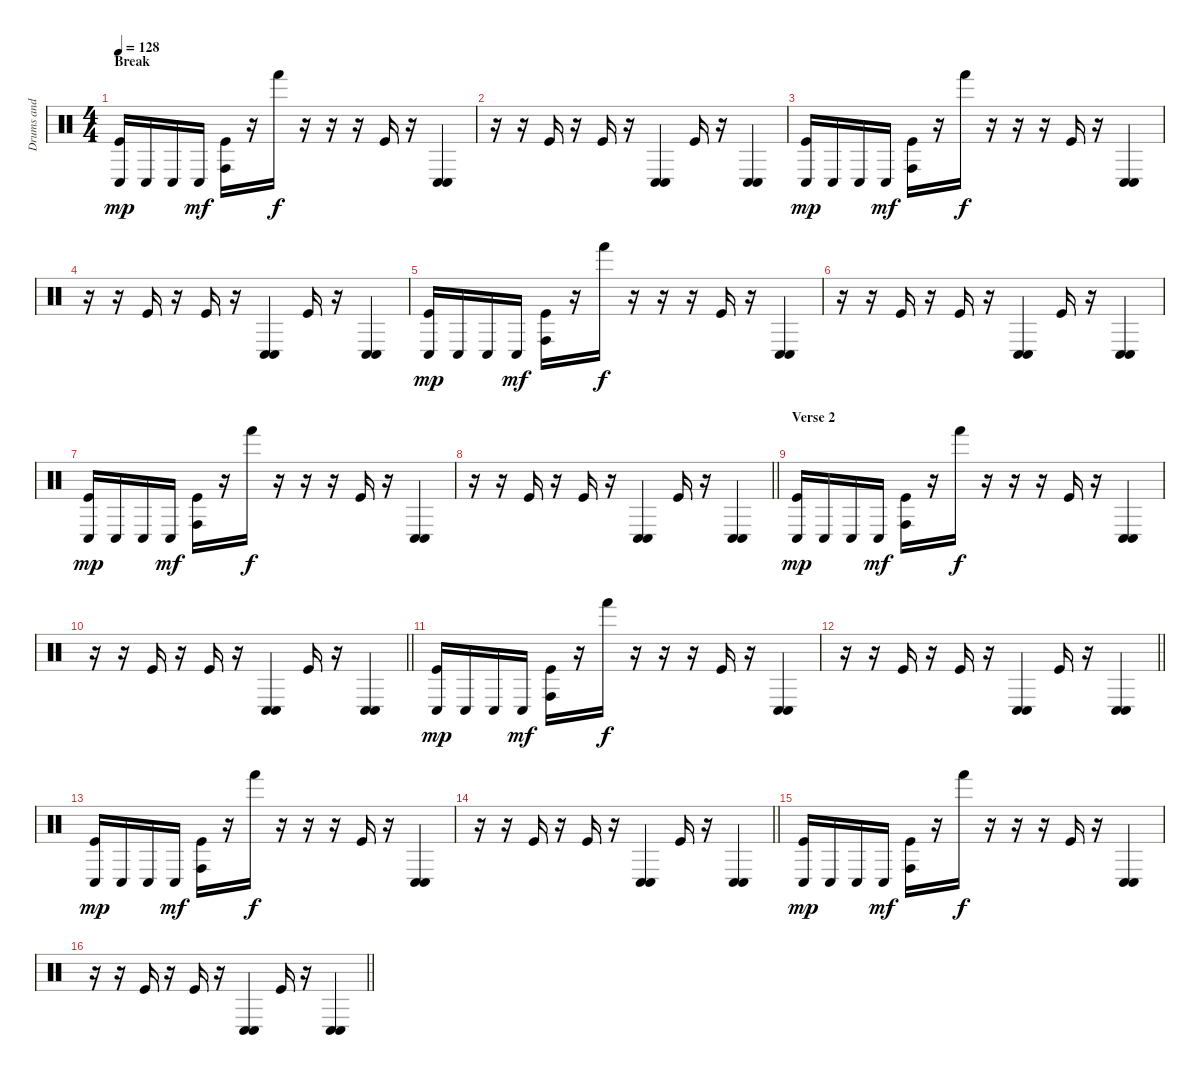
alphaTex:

\track ("Drums and Percussions" "Drums and ") {instrument percussion}
\staff {score}
\articulation defaults
\ts (4 4)
\section ("" "Break")
\tempo 128
\clef neutral
\ks c
("Conga low (hit)" "Kick (hit)").16{dy mp} "Conga low (hit)".16 "Conga low (hit)".16 "Conga low (hit)".16{dy mf} ("Conga high (hit)" "Kick (hit)").16 r.16 "Hand (hit)".16{dy f} r.16 r.16 r.16 "Kick (hit)".16 r.16 ("Conga low (hit)" "Conga low (hit)").4{bd 120} |
r.16 r.16 "Kick (hit)".16 r.16 "Kick (hit)".16 r.16 ("Conga low (hit)" "Conga low (hit)").4{bd 120} "Kick (hit)".16 r.16 ("Conga low (hit)" "Conga low (hit)").4{bd 120} |
("Conga low (hit)" "Kick (hit)").16{dy mp} "Conga low (hit)".16 "Conga low (hit)".16 "Conga low (hit)".16{dy mf} ("Conga high (hit)" "Kick (hit)").16 r.16 "Hand (hit)".16{dy f} r.16 r.16 r.16 "Kick (hit)".16 r.16 ("Conga low (hit)" "Conga low (hit)").4{bd 120} |
r.16 r.16 "Kick (hit)".16 r.16 "Kick (hit)".16 r.16 ("Conga low (hit)" "Conga low (hit)").4{bd 120} "Kick (hit)".16 r.16 ("Conga low (hit)" "Conga low (hit)").4{bd 120} |
("Conga low (hit)" "Kick (hit)").16{dy mp} "Conga low (hit)".16 "Conga low (hit)".16 "Conga low (hit)".16{dy mf} ("Conga high (hit)" "Kick (hit)").16 r.16 "Hand (hit)".16{dy f} r.16 r.16 r.16 "Kick (hit)".16 r.16 ("Conga low (hit)" "Conga low (hit)").4{bd 120} |
r.16 r.16 "Kick (hit)".16 r.16 "Kick (hit)".16 r.16 ("Conga low (hit)" "Conga low (hit)").4{bd 120} "Kick (hit)".16 r.16 ("Conga low (hit)" "Conga low (hit)").4{bd 120} |
("Conga low (hit)" "Kick (hit)").16{dy mp} "Conga low (hit)".16 "Conga low (hit)".16 "Conga low (hit)".16{dy mf} ("Conga high (hit)" "Kick (hit)").16 r.16 "Hand (hit)".16{dy f} r.16 r.16 r.16 "Kick (hit)".16 r.16 ("Conga low (hit)" "Conga low (hit)").4{bd 120} |
\barLineRight lightlight
r.16 r.16 "Kick (hit)".16 r.16 "Kick (hit)".16 r.16 ("Conga low (hit)" "Conga low (hit)").4{bd 120} "Kick (hit)".16 r.16 ("Conga low (hit)" "Conga low (hit)").4{bd 120} |
\section ("" "Verse 2")
("Conga low (hit)" "Kick (hit)").16{dy mp} "Conga low (hit)".16 "Conga low (hit)".16 "Conga low (hit)".16{dy mf} ("Conga high (hit)" "Kick (hit)").16 r.16 "Hand (hit)".16{dy f} r.16 r.16 r.16 "Kick (hit)".16 r.16 ("Conga low (hit)" "Conga low (hit)").4{bd 120} |
\barLineRight lightlight
r.16 r.16 "Kick (hit)".16 r.16 "Kick (hit)".16 r.16 ("Conga low (hit)" "Conga low (hit)").4{bd 120} "Kick (hit)".16 r.16 ("Conga low (hit)" "Conga low (hit)").4{bd 120} |
("Conga low (hit)" "Kick (hit)").16{dy mp} "Conga low (hit)".16 "Conga low (hit)".16 "Conga low (hit)".16{dy mf} ("Conga high (hit)" "Kick (hit)").16 r.16 "Hand (hit)".16{dy f} r.16 r.16 r.16 "Kick (hit)".16 r.16 ("Conga low (hit)" "Conga low (hit)").4{bd 120} |
\barLineRight lightlight
r.16 r.16 "Kick (hit)".16 r.16 "Kick (hit)".16 r.16 ("Conga low (hit)" "Conga low (hit)").4{bd 120} "Kick (hit)".16 r.16 ("Conga low (hit)" "Conga low (hit)").4{bd 120} |
("Conga low (hit)" "Kick (hit)").16{dy mp} "Conga low (hit)".16 "Conga low (hit)".16 "Conga low (hit)".16{dy mf} ("Conga high (hit)" "Kick (hit)").16 r.16 "Hand (hit)".16{dy f} r.16 r.16 r.16 "Kick (hit)".16 r.16 ("Conga low (hit)" "Conga low (hit)").4{bd 120} |
\barLineRight lightlight
r.16 r.16 "Kick (hit)".16 r.16 "Kick (hit)".16 r.16 ("Conga low (hit)" "Conga low (hit)").4{bd 120} "Kick (hit)".16 r.16 ("Conga low (hit)" "Conga low (hit)").4{bd 120} |
("Conga low (hit)" "Kick (hit)").16{dy mp} "Conga low (hit)".16 "Conga low (hit)".16 "Conga low (hit)".16{dy mf} ("Conga high (hit)" "Kick (hit)").16 r.16 "Hand (hit)".16{dy f} r.16 r.16 r.16 "Kick (hit)".16 r.16 ("Conga low (hit)" "Conga low (hit)").4{bd 120} |
\barLineRight lightlight
r.16 r.16 "Kick (hit)".16 r.16 "Kick (hit)".16 r.16 ("Conga low (hit)" "Conga low (hit)").4{bd 120} "Kick (hit)".16 r.16 ("Conga low (hit)" "Conga low (hit)").4{bd 120}
